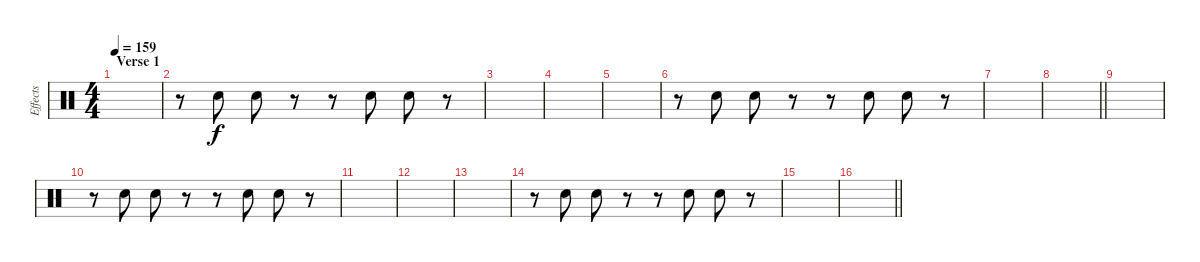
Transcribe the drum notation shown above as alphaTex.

\track ("Effects" "Effects") {instrument percussion}
\staff {score}
\articulation defaults
\ts (4 4)
\section ("" "Verse 1")
\tempo 159
\clef neutral
\ks c
|
r.8 "Hand Clap (hit)".8 "Hand Clap (hit)".8 r.8 r.8 "Hand Clap (hit)".8 "Hand Clap (hit)".8 r.8 |
|
|
|
r.8 "Hand Clap (hit)".8 "Hand Clap (hit)".8 r.8 r.8 "Hand Clap (hit)".8 "Hand Clap (hit)".8 r.8 |
|
\barLineRight lightlight
|
\section ("" "")
|
r.8 "Hand Clap (hit)".8 "Hand Clap (hit)".8 r.8 r.8 "Hand Clap (hit)".8 "Hand Clap (hit)".8 r.8 |
|
|
|
r.8 "Hand Clap (hit)".8 "Hand Clap (hit)".8 r.8 r.8 "Hand Clap (hit)".8 "Hand Clap (hit)".8 r.8 |
|
\barLineRight lightlight
